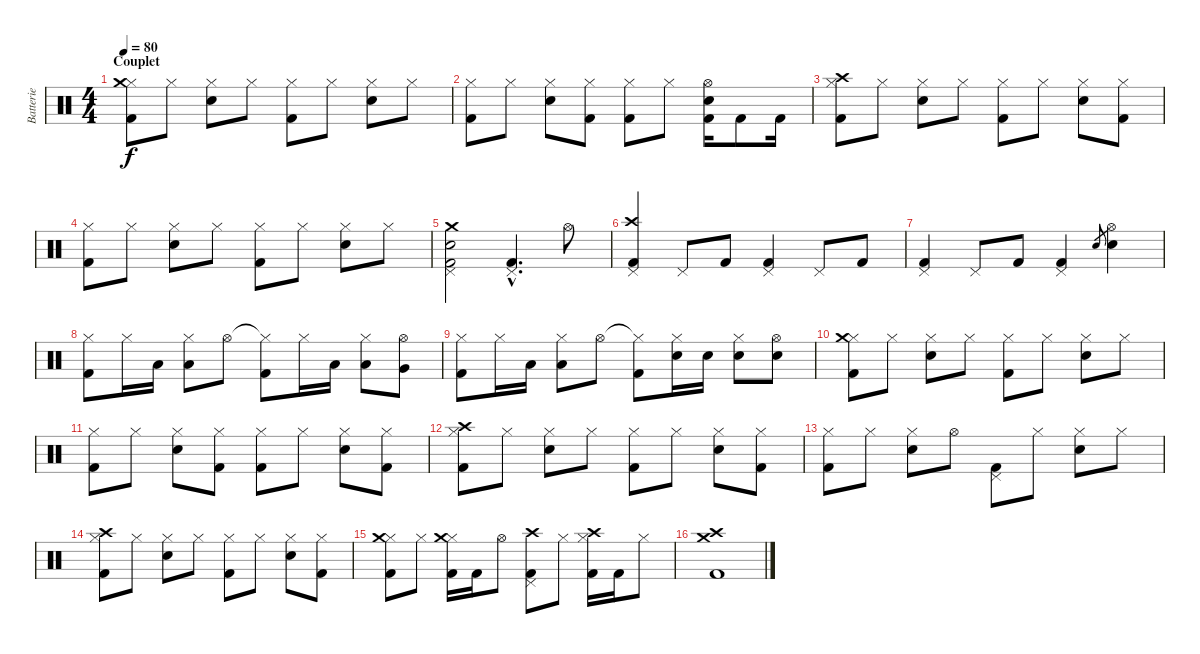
\track ("Batterie" "Batterie") {instrument percussion}
\staff {score}
\articulation defaults
\ts (4 4)
\section ("" "Couplet")
\tempo 80
\clef neutral
\ks c
("Hi-Hat (closed)" "Crash medium (hit)" "Kick (hit) 2").8{dy f} "Hi-Hat (closed)".8 ("Hi-Hat (closed)" "Snare (hit) 2").8 "Hi-Hat (closed)".8 ("Hi-Hat (closed)" "Kick (hit) 2").8 "Hi-Hat (closed)".8 ("Hi-Hat (closed)" "Snare (hit) 2").8 "Hi-Hat (closed)".8 |
("Hi-Hat (closed)" "Kick (hit) 2").8 "Hi-Hat (closed)".8 ("Hi-Hat (closed)" "Snare (hit) 2").8 ("Hi-Hat (closed)" "Kick (hit) 2").8 ("Hi-Hat (closed)" "Kick (hit) 2").8 "Hi-Hat (closed)".8 ("Hi-Hat (open)" "Snare (hit) 2" "Kick (hit) 2").16 "Kick (hit) 2".8 "Kick (hit) 2".16 |
("Hi-Hat (closed)" "Crash high (hit)" "Kick (hit) 2").8 "Hi-Hat (closed)".8 ("Hi-Hat (closed)" "Snare (hit) 2").8 "Hi-Hat (closed)".8 ("Hi-Hat (closed)" "Kick (hit) 2").8 "Hi-Hat (closed)".8 ("Hi-Hat (closed)" "Snare (hit) 2").8 ("Hi-Hat (closed)" "Kick (hit) 2").8 |
("Hi-Hat (closed)" "Kick (hit) 2").8 "Hi-Hat (closed)".8 ("Hi-Hat (closed)" "Snare (hit) 2").8 "Hi-Hat (closed)".8 ("Hi-Hat (closed)" "Kick (hit) 2").8 "Hi-Hat (closed)".8 ("Hi-Hat (closed)" "Snare (hit) 2").8 "Hi-Hat (closed)".8 |
("Pedal Hi-Hat (hit)" "Crash medium (hit)" "Snare (hit) 2" "Kick (hit) 2").2 ("Pedal Hi-Hat (hit)"{hac} "Kick (hit) 2"{hac}).4{d} "Hi-Hat (open)".8 |
("Pedal Hi-Hat (hit)" "Crash high (hit)" "Kick (hit) 2").4 "Pedal Hi-Hat (hit)".8 "Kick (hit) 2".8 ("Pedal Hi-Hat (hit)" "Kick (hit) 2").4 "Pedal Hi-Hat (hit)".8 "Kick (hit) 2".8 |
("Pedal Hi-Hat (hit)" "Kick (hit) 2").4 "Pedal Hi-Hat (hit)".8 "Kick (hit) 2".8 ("Pedal Hi-Hat (hit)" "Kick (hit) 2").4 "Snare (hit) 2".8{gr} ("Hi-Hat (open)" "Snare (hit) 2").4 |
("Hi-Hat (closed)" "Kick (hit) 2").8 "Hi-Hat (closed)".16 "Low Floor Tom (hit)".16 ("Hi-Hat (closed)" "Low Tom (hit)").8 "Hi-Hat (open)".8 ("Hi-Hat (closed)"{t} "Kick (hit) 2").8 "Hi-Hat (closed)".16 "Low Floor Tom (hit)".16 ("Hi-Hat (closed)" "Low Tom (hit)").8 ("Hi-Hat (open)" "Very Low Tom (hit)").8 |
("Hi-Hat (closed)" "Kick (hit) 2").8 "Hi-Hat (closed)".16 "Low Floor Tom (hit)".16 ("Hi-Hat (closed)" "Low Tom (hit)").8 "Hi-Hat (open)".8 ("Hi-Hat (closed)"{t} "Kick (hit) 2").8 ("Hi-Hat (closed)" "Snare (hit) 2").16 "Snare (hit) 2".16 ("Hi-Hat (closed)" "Snare (hit) 2").8 ("Hi-Hat (open)" "Snare (hit) 2").8 |
("Hi-Hat (closed)" "Crash medium (hit)" "Kick (hit) 2").8 "Hi-Hat (closed)".8 ("Hi-Hat (closed)" "Snare (hit) 2").8 "Hi-Hat (closed)".8 ("Hi-Hat (closed)" "Kick (hit) 2").8 "Hi-Hat (closed)".8 ("Hi-Hat (closed)" "Snare (hit) 2").8 "Hi-Hat (closed)".8 |
("Hi-Hat (closed)" "Kick (hit) 2").8 "Hi-Hat (closed)".8 ("Hi-Hat (closed)" "Snare (hit) 2").8 ("Hi-Hat (closed)" "Kick (hit) 2").8 ("Hi-Hat (closed)" "Kick (hit) 2").8 "Hi-Hat (closed)".8 ("Hi-Hat (closed)" "Snare (hit) 2").8 ("Hi-Hat (closed)" "Kick (hit) 2").8 |
("Hi-Hat (closed)" "Crash high (hit)" "Kick (hit) 2").8 "Hi-Hat (closed)".8 ("Hi-Hat (closed)" "Snare (hit) 2").8 "Hi-Hat (closed)".8 ("Hi-Hat (closed)" "Kick (hit) 2").8 "Hi-Hat (closed)".8 ("Hi-Hat (closed)" "Snare (hit) 2").8 ("Hi-Hat (closed)" "Kick (hit) 2").8 |
("Hi-Hat (closed)" "Kick (hit) 2").8 "Hi-Hat (closed)".8 ("Hi-Hat (closed)" "Snare (hit) 2").8 "Hi-Hat (open)".8 ("Pedal Hi-Hat (hit)" "Kick (hit) 2").8 "Hi-Hat (closed)".8 ("Hi-Hat (closed)" "Snare (hit) 2").8 "Hi-Hat (closed)".8 |
("Hi-Hat (closed)" "Crash high (hit)" "Kick (hit) 2").8 "Hi-Hat (closed)".8 ("Hi-Hat (closed)" "Snare (hit) 2").8 "Hi-Hat (closed)".8 ("Hi-Hat (closed)" "Kick (hit) 2").8 "Hi-Hat (closed)".8 ("Hi-Hat (closed)" "Snare (hit) 2").8 ("Hi-Hat (closed)" "Kick (hit) 2").8 |
("Hi-Hat (closed)" "Crash medium (hit)" "Kick (hit) 2").8 "Hi-Hat (closed)".8 ("Hi-Hat (closed)" "Crash medium (hit)" "Kick (hit) 2").16 "Kick (hit) 2".16 "Hi-Hat (open)".8 ("Pedal Hi-Hat (hit)" "Crash high (hit)" "Kick (hit) 2").8 "Hi-Hat (closed)".8 ("Hi-Hat (closed)" "Crash high (hit)" "Kick (hit) 2").16 "Kick (hit) 2".16 "Hi-Hat (closed)".8 |
("Crash medium (hit)" "Crash high (hit)" "Kick (hit) 2").1
